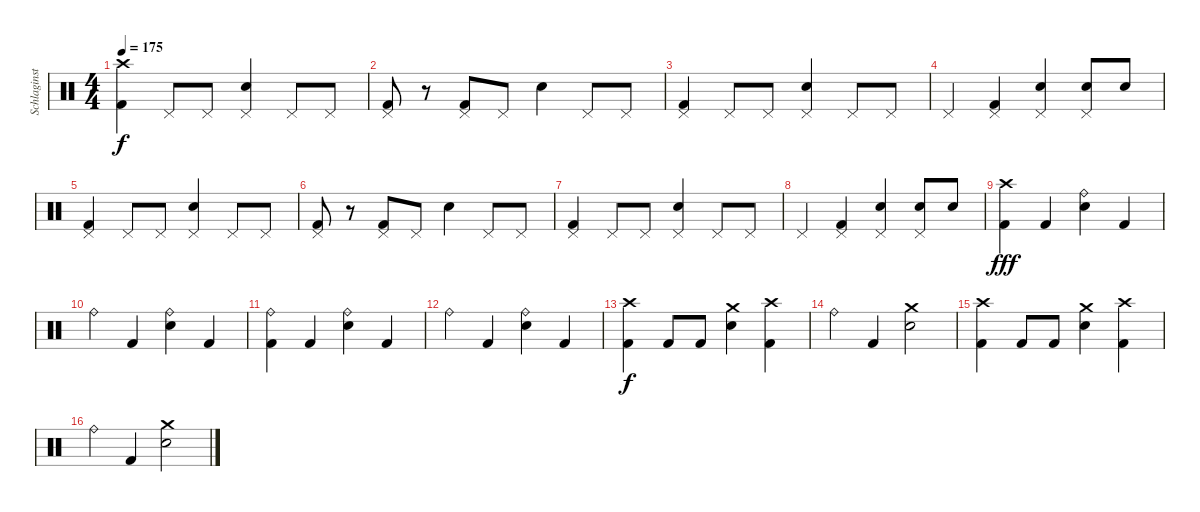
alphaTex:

\track ("Schlaginstrumente - Auswahl" "Schlaginst") {instrument percussion}
\staff {score}
\articulation defaults
\ts (4 4)
\tempo 175
\clef neutral
\ks c
("Crash high (hit)" "Kick (hit) 2").4{dy f} "Pedal Hi-Hat (hit)".8 "Pedal Hi-Hat (hit)".8 ("Pedal Hi-Hat (hit)" "Electric Snare (hit)").4 "Pedal Hi-Hat (hit)".8 "Pedal Hi-Hat (hit)".8 |
("Pedal Hi-Hat (hit)" "Kick (hit) 2").8 r.8 ("Kick (hit) 2" "Pedal Hi-Hat (hit)").8 "Pedal Hi-Hat (hit)".8 "Electric Snare (hit)".4 "Pedal Hi-Hat (hit)".8 "Pedal Hi-Hat (hit)".8 |
("Pedal Hi-Hat (hit)" "Kick (hit) 2").4 "Pedal Hi-Hat (hit)".8 "Pedal Hi-Hat (hit)".8 ("Pedal Hi-Hat (hit)" "Electric Snare (hit)").4 "Pedal Hi-Hat (hit)".8 "Pedal Hi-Hat (hit)".8 |
"Pedal Hi-Hat (hit)".4 ("Kick (hit) 2" "Pedal Hi-Hat (hit)").4 ("Electric Snare (hit)" "Pedal Hi-Hat (hit)").4 ("Electric Snare (hit)" "Pedal Hi-Hat (hit)").8 "Electric Snare (hit)".8 |
("Pedal Hi-Hat (hit)" "Kick (hit) 2").4 "Pedal Hi-Hat (hit)".8 "Pedal Hi-Hat (hit)".8 ("Pedal Hi-Hat (hit)" "Electric Snare (hit)").4 "Pedal Hi-Hat (hit)".8 "Pedal Hi-Hat (hit)".8 |
("Pedal Hi-Hat (hit)" "Kick (hit) 2").8 r.8 ("Kick (hit) 2" "Pedal Hi-Hat (hit)").8 "Pedal Hi-Hat (hit)".8 "Electric Snare (hit)".4 "Pedal Hi-Hat (hit)".8 "Pedal Hi-Hat (hit)".8 |
("Pedal Hi-Hat (hit)" "Kick (hit) 2").4 "Pedal Hi-Hat (hit)".8 "Pedal Hi-Hat (hit)".8 ("Pedal Hi-Hat (hit)" "Electric Snare (hit)").4 "Pedal Hi-Hat (hit)".8 "Pedal Hi-Hat (hit)".8 |
"Pedal Hi-Hat (hit)".4 ("Kick (hit) 2" "Pedal Hi-Hat (hit)").4 ("Electric Snare (hit)" "Pedal Hi-Hat (hit)").4 ("Electric Snare (hit)" "Pedal Hi-Hat (hit)").8 "Electric Snare (hit)".8 |
("Crash high (hit)" "Kick (hit) 2").4{dy fff} "Kick (hit) 2".4 ("Ride (bell)" "Electric Snare (hit)").4 "Kick (hit) 2".4 |
"Ride (bell)".4 "Kick (hit) 2".4 ("Ride (bell)" "Electric Snare (hit)").4 "Kick (hit) 2".4 |
("Ride (bell)" "Kick (hit) 2").4 "Kick (hit) 2".4 ("Ride (bell)" "Electric Snare (hit)").4 "Kick (hit) 2".4 |
"Ride (bell)".4 "Kick (hit) 2".4 ("Ride (bell)" "Electric Snare (hit)").4 "Kick (hit) 2".4 |
("Crash high (hit)" "Kick (hit) 2").4{dy f} "Kick (hit) 2".8 "Kick (hit) 2".8 ("Crash medium (hit)" "Electric Snare (hit)").4 ("Crash high (hit)" "Kick (hit) 2").4 |
"Ride (bell)".4 "Kick (hit) 2".4 ("Electric Snare (hit)" "Crash medium (hit)").2 |
("Crash high (hit)" "Kick (hit) 2").4 "Kick (hit) 2".8 "Kick (hit) 2".8 ("Crash medium (hit)" "Electric Snare (hit)").4 ("Crash high (hit)" "Kick (hit) 2").4 |
"Ride (bell)".4 "Kick (hit) 2".4 ("Electric Snare (hit)" "Crash medium (hit)").2
